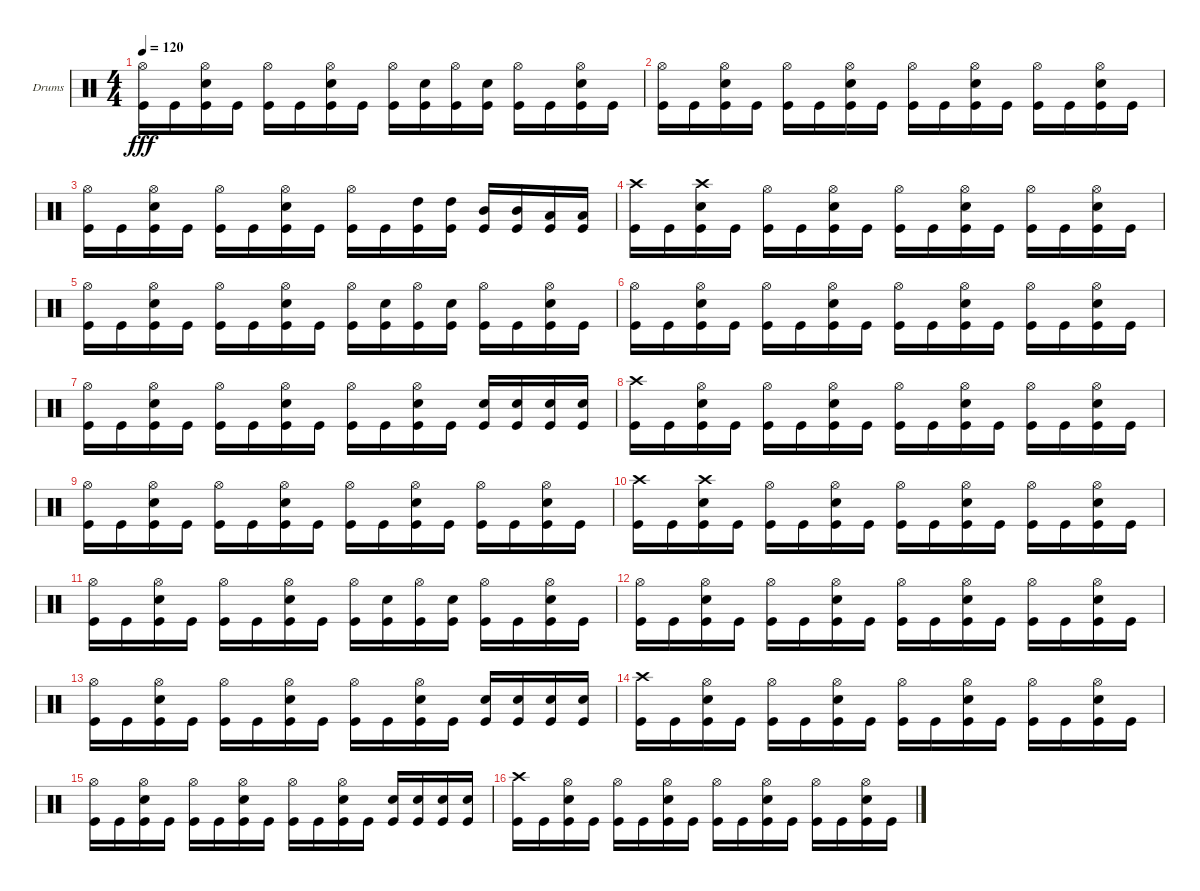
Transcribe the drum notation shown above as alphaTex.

\defaultSystemsLayout 4
\bracketExtendMode groupsimilarinstruments
\firstSystemTrackNameOrientation horizontal
\otherSystemsTrackNameOrientation horizontal
\track ("Jon Larsen" "Drums") {instrument percussion}
\staff {score}
\articulation defaults
\ts (4 4)
\tempo 120
\clef neutral
\scale
0.333333
\ks c
("Kick (hit)" "Hi-Hat (open)").16{dy fff} "Kick (hit)".16 ("Kick (hit)" "Snare (hit) 2" "Hi-Hat (open)").16 "Kick (hit)".16 ("Kick (hit)" "Hi-Hat (open)").16 "Kick (hit)".16 ("Kick (hit)" "Snare (hit) 2" "Hi-Hat (open)").16 "Kick (hit)".16 ("Kick (hit)" "Hi-Hat (open)").16 ("Kick (hit)" "Snare (hit) 2").16 ("Kick (hit)" "Hi-Hat (open)").16 ("Kick (hit)" "Snare (hit) 2").16 ("Kick (hit)" "Hi-Hat (open)").16 "Kick (hit)".16 ("Kick (hit)" "Hi-Hat (open)" "Snare (hit) 2").16 "Kick (hit)".16 |
\scale
0.333333 ("Kick (hit)" "Hi-Hat (open)").16 "Kick (hit)".16 ("Kick (hit)" "Snare (hit) 2" "Hi-Hat (open)").16 "Kick (hit)".16 ("Kick (hit)" "Hi-Hat (open)").16 "Kick (hit)".16 ("Kick (hit)" "Snare (hit) 2" "Hi-Hat (open)").16 "Kick (hit)".16 ("Kick (hit)" "Hi-Hat (open)").16 "Kick (hit)".16 ("Kick (hit)" "Snare (hit) 2" "Hi-Hat (open)").16 "Kick (hit)".16 ("Kick (hit)" "Hi-Hat (open)").16 "Kick (hit)".16 ("Kick (hit)" "Snare (hit) 2" "Hi-Hat (open)").16 "Kick (hit)".16 |
\scale
0.333333 ("Kick (hit)" "Hi-Hat (open)").16 "Kick (hit)".16 ("Kick (hit)" "Snare (hit) 2" "Hi-Hat (open)").16 "Kick (hit)".16 ("Kick (hit)" "Hi-Hat (open)").16 "Kick (hit)".16 ("Kick (hit)" "Snare (hit) 2" "Hi-Hat (open)").16 "Kick (hit)".16 ("Kick (hit)" "Hi-Hat (open)").16 "Kick (hit)".16 ("Kick (hit)" "High Tom (hit)").16 ("Kick (hit)" "High Tom (hit)").16 ("Kick (hit)" "Mid Tom (hit)").16 ("Kick (hit)" "Mid Tom (hit)").16 ("Kick (hit)" "Low Tom (hit)").16 ("Kick (hit)" "Low Tom (hit)").16 |
\scale
0.333333 ("Crash high (hit)" "Kick (hit)").16 "Kick (hit)".16 ("Kick (hit)" "Crash high (hit)" "Snare (hit) 2").16 "Kick (hit)".16 ("Kick (hit)" "Hi-Hat (open)").16 "Kick (hit)".16 ("Kick (hit)" "Snare (hit) 2" "Hi-Hat (open)").16 "Kick (hit)".16 ("Kick (hit)" "Hi-Hat (open)").16 "Kick (hit)".16 ("Kick (hit)" "Snare (hit) 2" "Hi-Hat (open)").16 "Kick (hit)".16 ("Kick (hit)" "Hi-Hat (open)").16 "Kick (hit)".16 ("Kick (hit)" "Snare (hit) 2" "Hi-Hat (open)").16 "Kick (hit)".16 |
\scale
0.333333 ("Kick (hit)" "Hi-Hat (open)").16 "Kick (hit)".16 ("Kick (hit)" "Snare (hit) 2" "Hi-Hat (open)").16 "Kick (hit)".16 ("Kick (hit)" "Hi-Hat (open)").16 "Kick (hit)".16 ("Kick (hit)" "Snare (hit) 2" "Hi-Hat (open)").16 "Kick (hit)".16 ("Kick (hit)" "Hi-Hat (open)").16 ("Kick (hit)" "Snare (hit) 2").16 ("Kick (hit)" "Hi-Hat (open)").16 ("Kick (hit)" "Snare (hit) 2").16 ("Kick (hit)" "Hi-Hat (open)").16 "Kick (hit)".16 ("Kick (hit)" "Hi-Hat (open)" "Snare (hit) 2").16 "Kick (hit)".16 |
\scale
0.333333 ("Kick (hit)" "Hi-Hat (open)").16 "Kick (hit)".16 ("Kick (hit)" "Snare (hit) 2" "Hi-Hat (open)").16 "Kick (hit)".16 ("Kick (hit)" "Hi-Hat (open)").16 "Kick (hit)".16 ("Kick (hit)" "Snare (hit) 2" "Hi-Hat (open)").16 "Kick (hit)".16 ("Kick (hit)" "Hi-Hat (open)").16 "Kick (hit)".16 ("Kick (hit)" "Snare (hit) 2" "Hi-Hat (open)").16 "Kick (hit)".16 ("Kick (hit)" "Hi-Hat (open)").16 "Kick (hit)".16 ("Kick (hit)" "Snare (hit) 2" "Hi-Hat (open)").16 "Kick (hit)".16 |
\scale
0.333333 ("Kick (hit)" "Hi-Hat (open)").16 "Kick (hit)".16 ("Kick (hit)" "Snare (hit) 2" "Hi-Hat (open)").16 "Kick (hit)".16 ("Kick (hit)" "Hi-Hat (open)").16 "Kick (hit)".16 ("Kick (hit)" "Snare (hit) 2" "Hi-Hat (open)").16 "Kick (hit)".16 ("Kick (hit)" "Hi-Hat (open)").16 "Kick (hit)".16 ("Kick (hit)" "Snare (hit) 2" "Hi-Hat (open)").16 "Kick (hit)".16 ("Kick (hit)" "Snare (hit) 2").16 ("Kick (hit)" "Snare (hit) 2").16 ("Kick (hit)" "Snare (hit) 2").16 ("Kick (hit)" "Snare (hit) 2").16 |
\scale
0.333333 ("Kick (hit)" "Crash high (hit)").16 "Kick (hit)".16 ("Kick (hit)" "Hi-Hat (open)" "Snare (hit) 2").16 "Kick (hit)".16 ("Kick (hit)" "Hi-Hat (open)").16 "Kick (hit)".16 ("Kick (hit)" "Hi-Hat (open)" "Snare (hit) 2").16 "Kick (hit)".16 ("Kick (hit)" "Hi-Hat (open)").16 "Kick (hit)".16 ("Kick (hit)" "Hi-Hat (open)" "Snare (hit) 2").16 "Kick (hit)".16 ("Kick (hit)" "Hi-Hat (open)").16 "Kick (hit)".16 ("Kick (hit)" "Hi-Hat (open)" "Snare (hit) 2").16 "Kick (hit)".16 |
\scale
0.333333 ("Kick (hit)" "Hi-Hat (open)").16 "Kick (hit)".16 ("Kick (hit)" "Snare (hit) 2" "Hi-Hat (open)").16 "Kick (hit)".16 ("Kick (hit)" "Hi-Hat (open)").16 "Kick (hit)".16 ("Kick (hit)" "Snare (hit) 2" "Hi-Hat (open)").16 "Kick (hit)".16 ("Kick (hit)" "Hi-Hat (open)").16 "Kick (hit)".16 ("Kick (hit)" "Snare (hit) 2" "Hi-Hat (open)").16 "Kick (hit)".16 ("Kick (hit)" "Hi-Hat (open)").16 "Kick (hit)".16 ("Kick (hit)" "Snare (hit) 2" "Hi-Hat (open)").16 "Kick (hit)".16 |
\scale
0.333333 ("Crash high (hit)" "Kick (hit)").16 "Kick (hit)".16 ("Kick (hit)" "Crash high (hit)" "Snare (hit) 2").16 "Kick (hit)".16 ("Kick (hit)" "Hi-Hat (open)").16 "Kick (hit)".16 ("Kick (hit)" "Snare (hit) 2" "Hi-Hat (open)").16 "Kick (hit)".16 ("Kick (hit)" "Hi-Hat (open)").16 "Kick (hit)".16 ("Kick (hit)" "Snare (hit) 2" "Hi-Hat (open)").16 "Kick (hit)".16 ("Kick (hit)" "Hi-Hat (open)").16 "Kick (hit)".16 ("Kick (hit)" "Snare (hit) 2" "Hi-Hat (open)").16 "Kick (hit)".16 |
\scale
0.333333 ("Kick (hit)" "Hi-Hat (open)").16 "Kick (hit)".16 ("Kick (hit)" "Snare (hit) 2" "Hi-Hat (open)").16 "Kick (hit)".16 ("Kick (hit)" "Hi-Hat (open)").16 "Kick (hit)".16 ("Kick (hit)" "Snare (hit) 2" "Hi-Hat (open)").16 "Kick (hit)".16 ("Kick (hit)" "Hi-Hat (open)").16 ("Kick (hit)" "Snare (hit) 2").16 ("Kick (hit)" "Hi-Hat (open)").16 ("Kick (hit)" "Snare (hit) 2").16 ("Kick (hit)" "Hi-Hat (open)").16 "Kick (hit)".16 ("Kick (hit)" "Hi-Hat (open)" "Snare (hit) 2").16 "Kick (hit)".16 |
\scale
0.333333 ("Kick (hit)" "Hi-Hat (open)").16 "Kick (hit)".16 ("Kick (hit)" "Snare (hit) 2" "Hi-Hat (open)").16 "Kick (hit)".16 ("Kick (hit)" "Hi-Hat (open)").16 "Kick (hit)".16 ("Kick (hit)" "Snare (hit) 2" "Hi-Hat (open)").16 "Kick (hit)".16 ("Kick (hit)" "Hi-Hat (open)").16 "Kick (hit)".16 ("Kick (hit)" "Snare (hit) 2" "Hi-Hat (open)").16 "Kick (hit)".16 ("Kick (hit)" "Hi-Hat (open)").16 "Kick (hit)".16 ("Kick (hit)" "Snare (hit) 2" "Hi-Hat (open)").16 "Kick (hit)".16 |
\scale
0.333333 ("Kick (hit)" "Hi-Hat (open)").16 "Kick (hit)".16 ("Kick (hit)" "Snare (hit) 2" "Hi-Hat (open)").16 "Kick (hit)".16 ("Kick (hit)" "Hi-Hat (open)").16 "Kick (hit)".16 ("Kick (hit)" "Snare (hit) 2" "Hi-Hat (open)").16 "Kick (hit)".16 ("Kick (hit)" "Hi-Hat (open)").16 "Kick (hit)".16 ("Kick (hit)" "Snare (hit) 2" "Hi-Hat (open)").16 "Kick (hit)".16 ("Kick (hit)" "Snare (hit) 2").16 ("Kick (hit)" "Snare (hit) 2").16 ("Kick (hit)" "Snare (hit) 2").16 ("Kick (hit)" "Snare (hit) 2").16 |
\scale
0.333333 ("Kick (hit)" "Crash high (hit)").16 "Kick (hit)".16 ("Kick (hit)" "Hi-Hat (open)" "Snare (hit) 2").16 "Kick (hit)".16 ("Kick (hit)" "Hi-Hat (open)").16 "Kick (hit)".16 ("Kick (hit)" "Hi-Hat (open)" "Snare (hit) 2").16 "Kick (hit)".16 ("Kick (hit)" "Hi-Hat (open)").16 "Kick (hit)".16 ("Kick (hit)" "Hi-Hat (open)" "Snare (hit) 2").16 "Kick (hit)".16 ("Kick (hit)" "Hi-Hat (open)").16 "Kick (hit)".16 ("Kick (hit)" "Hi-Hat (open)" "Snare (hit) 2").16 "Kick (hit)".16 |
\scale
0.333333 ("Kick (hit)" "Hi-Hat (open)").16 "Kick (hit)".16 ("Kick (hit)" "Snare (hit) 2" "Hi-Hat (open)").16 "Kick (hit)".16 ("Kick (hit)" "Hi-Hat (open)").16 "Kick (hit)".16 ("Kick (hit)" "Snare (hit) 2" "Hi-Hat (open)").16 "Kick (hit)".16 ("Kick (hit)" "Hi-Hat (open)").16 "Kick (hit)".16 ("Kick (hit)" "Snare (hit) 2" "Hi-Hat (open)").16 "Kick (hit)".16 ("Kick (hit)" "Snare (hit) 2").16 ("Kick (hit)" "Snare (hit) 2").16 ("Kick (hit)" "Snare (hit) 2").16 ("Kick (hit)" "Snare (hit) 2").16 |
\scale
0.333333 ("Kick (hit)" "Crash high (hit)").16 "Kick (hit)".16 ("Kick (hit)" "Hi-Hat (open)" "Snare (hit) 2").16 "Kick (hit)".16 ("Kick (hit)" "Hi-Hat (open)").16 "Kick (hit)".16 ("Kick (hit)" "Hi-Hat (open)" "Snare (hit) 2").16 "Kick (hit)".16 ("Kick (hit)" "Hi-Hat (open)").16 "Kick (hit)".16 ("Kick (hit)" "Hi-Hat (open)" "Snare (hit) 2").16 "Kick (hit)".16 ("Kick (hit)" "Hi-Hat (open)").16 "Kick (hit)".16 ("Kick (hit)" "Hi-Hat (open)" "Snare (hit) 2").16 "Kick (hit)".16
